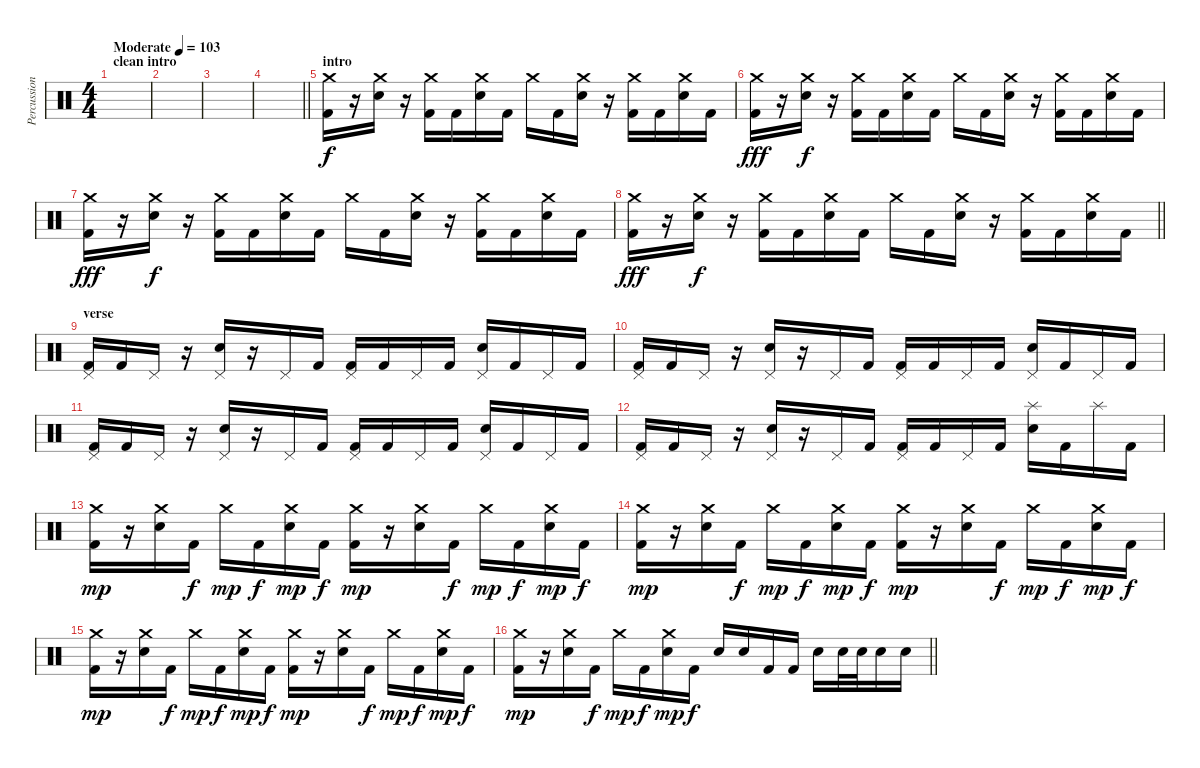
\track ("Percussion" "Percussion") {instrument percussion}
\staff {score}
\articulation defaults
\ts (4 4)
\section ("" "clean intro")
\tempo (103 "Moderate")
\clef neutral
\ks c
|
|
|
\barLineRight lightlight
|
\section ("" "intro")
("Crash medium (hit)" "Kick (hit) 2").16 r.16 ("Crash medium (hit)" "Electric Snare (hit)").16{dy f} r.16 ("Crash medium (hit)" "Kick (hit) 2").16 "Kick (hit) 2".16 ("Crash medium (hit)" "Electric Snare (hit)").16 "Kick (hit) 2".16 "Crash medium (hit)".16 "Kick (hit) 2".16 ("Crash medium (hit)" "Electric Snare (hit)").16 r.16 ("Crash medium (hit)" "Kick (hit) 2").16 "Kick (hit) 2".16 ("Crash medium (hit)" "Electric Snare (hit)").16 "Kick (hit) 2".16 |
("Crash medium (hit)" "Kick (hit) 2").16{dy fff} r.16 ("Crash medium (hit)" "Electric Snare (hit)").16{dy f} r.16 ("Crash medium (hit)" "Kick (hit) 2").16 "Kick (hit) 2".16 ("Crash medium (hit)" "Electric Snare (hit)").16 "Kick (hit) 2".16 "Crash medium (hit)".16 "Kick (hit) 2".16 ("Crash medium (hit)" "Electric Snare (hit)").16 r.16 ("Crash medium (hit)" "Kick (hit) 2").16 "Kick (hit) 2".16 ("Crash medium (hit)" "Electric Snare (hit)").16 "Kick (hit) 2".16 |
("Crash medium (hit)" "Kick (hit) 2").16{dy fff} r.16 ("Crash medium (hit)" "Electric Snare (hit)").16{dy f} r.16 ("Crash medium (hit)" "Kick (hit) 2").16 "Kick (hit) 2".16 ("Crash medium (hit)" "Electric Snare (hit)").16 "Kick (hit) 2".16 "Crash medium (hit)".16 "Kick (hit) 2".16 ("Crash medium (hit)" "Electric Snare (hit)").16 r.16 ("Crash medium (hit)" "Kick (hit) 2").16 "Kick (hit) 2".16 ("Crash medium (hit)" "Electric Snare (hit)").16 "Kick (hit) 2".16 |
\barLineRight lightlight
("Crash medium (hit)" "Kick (hit) 2").16{dy fff} r.16 ("Crash medium (hit)" "Electric Snare (hit)").16{dy f} r.16 ("Crash medium (hit)" "Kick (hit) 2").16 "Kick (hit) 2".16 ("Crash medium (hit)" "Electric Snare (hit)").16 "Kick (hit) 2".16 "Crash medium (hit)".16 "Kick (hit) 2".16 ("Crash medium (hit)" "Electric Snare (hit)").16 r.16 ("Crash medium (hit)" "Kick (hit) 2").16 "Kick (hit) 2".16 ("Crash medium (hit)" "Electric Snare (hit)").16 "Kick (hit) 2".16 |
\section ("" "verse")
("Pedal Hi-Hat (hit)" "Kick (hit) 2").16 "Kick (hit) 2".16 "Pedal Hi-Hat (hit)".16 r.16 ("Pedal Hi-Hat (hit)" "Electric Snare (hit)").16 r.16 "Pedal Hi-Hat (hit)".16 "Kick (hit) 2".16 ("Pedal Hi-Hat (hit)" "Kick (hit) 2").16 "Kick (hit) 2".16 "Pedal Hi-Hat (hit)".16 "Kick (hit) 2".16 ("Pedal Hi-Hat (hit)" "Electric Snare (hit)").16 "Kick (hit) 2".16 "Pedal Hi-Hat (hit)".16 "Kick (hit) 2".16 |
("Pedal Hi-Hat (hit)" "Kick (hit) 2").16 "Kick (hit) 2".16 "Pedal Hi-Hat (hit)".16 r.16 ("Pedal Hi-Hat (hit)" "Electric Snare (hit)").16 r.16 "Pedal Hi-Hat (hit)".16 "Kick (hit) 2".16 ("Pedal Hi-Hat (hit)" "Kick (hit) 2").16 "Kick (hit) 2".16 "Pedal Hi-Hat (hit)".16 "Kick (hit) 2".16 ("Pedal Hi-Hat (hit)" "Electric Snare (hit)").16 "Kick (hit) 2".16 "Pedal Hi-Hat (hit)".16 "Kick (hit) 2".16 |
("Pedal Hi-Hat (hit)" "Kick (hit) 2").16 "Kick (hit) 2".16 "Pedal Hi-Hat (hit)".16 r.16 ("Pedal Hi-Hat (hit)" "Electric Snare (hit)").16 r.16 "Pedal Hi-Hat (hit)".16 "Kick (hit) 2".16 ("Pedal Hi-Hat (hit)" "Kick (hit) 2").16 "Kick (hit) 2".16 "Pedal Hi-Hat (hit)".16 "Kick (hit) 2".16 ("Pedal Hi-Hat (hit)" "Electric Snare (hit)").16 "Kick (hit) 2".16 "Pedal Hi-Hat (hit)".16 "Kick (hit) 2".16 |
("Pedal Hi-Hat (hit)" "Kick (hit) 2").16 "Kick (hit) 2".16 "Pedal Hi-Hat (hit)".16 r.16 ("Pedal Hi-Hat (hit)" "Electric Snare (hit)").16 r.16 "Pedal Hi-Hat (hit)".16 "Kick (hit) 2".16 ("Pedal Hi-Hat (hit)" "Kick (hit) 2").16 "Kick (hit) 2".16 "Pedal Hi-Hat (hit)".16 "Kick (hit) 2".16 ("Splash (hit)" "Electric Snare (hit)").16 "Kick (hit) 2".16 "Splash (hit)".16 "Kick (hit) 2".16 |
("Crash medium (hit)" "Kick (hit) 2").16{dy mp} r.16 ("Crash medium (hit)" "Electric Snare (hit)").16 "Kick (hit) 2".16{dy f} "Crash medium (hit)".16{dy mp} "Kick (hit) 2".16{dy f} ("Crash medium (hit)" "Electric Snare (hit)").16{dy mp} "Kick (hit) 2".16{dy f} ("Crash medium (hit)" "Kick (hit) 2").16{dy mp} r.16 ("Crash medium (hit)" "Electric Snare (hit)").16 "Kick (hit) 2".16{dy f} "Crash medium (hit)".16{dy mp} "Kick (hit) 2".16{dy f} ("Crash medium (hit)" "Electric Snare (hit)").16{dy mp} "Kick (hit) 2".16{dy f} |
("Crash medium (hit)" "Kick (hit) 2").16{dy mp} r.16 ("Crash medium (hit)" "Electric Snare (hit)").16 "Kick (hit) 2".16{dy f} "Crash medium (hit)".16{dy mp} "Kick (hit) 2".16{dy f} ("Crash medium (hit)" "Electric Snare (hit)").16{dy mp} "Kick (hit) 2".16{dy f} ("Crash medium (hit)" "Kick (hit) 2").16{dy mp} r.16 ("Crash medium (hit)" "Electric Snare (hit)").16 "Kick (hit) 2".16{dy f} "Crash medium (hit)".16{dy mp} "Kick (hit) 2".16{dy f} ("Crash medium (hit)" "Electric Snare (hit)").16{dy mp} "Kick (hit) 2".16{dy f} |
("Crash medium (hit)" "Kick (hit) 2").16{dy mp} r.16 ("Crash medium (hit)" "Electric Snare (hit)").16 "Kick (hit) 2".16{dy f} "Crash medium (hit)".16{dy mp} "Kick (hit) 2".16{dy f} ("Crash medium (hit)" "Electric Snare (hit)").16{dy mp} "Kick (hit) 2".16{dy f} ("Crash medium (hit)" "Kick (hit) 2").16{dy mp} r.16 ("Crash medium (hit)" "Electric Snare (hit)").16 "Kick (hit) 2".16{dy f} "Crash medium (hit)".16{dy mp} "Kick (hit) 2".16{dy f} ("Crash medium (hit)" "Electric Snare (hit)").16{dy mp} "Kick (hit) 2".16{dy f} |
\barLineRight lightlight
("Crash medium (hit)" "Kick (hit) 2").16{dy mp} r.16 ("Crash medium (hit)" "Electric Snare (hit)").16 "Kick (hit) 2".16{dy f} "Crash medium (hit)".16{dy mp} "Kick (hit) 2".16{dy f} ("Crash medium (hit)" "Electric Snare (hit)").16{dy mp} "Kick (hit) 2".16{dy f} "Electric Snare (hit)".16 "Electric Snare (hit)".16 "Kick (hit) 2".16 "Kick (hit) 2".16 "Electric Snare (hit)".16 "Electric Snare (hit)".32 "Electric Snare (hit)".32 "Electric Snare (hit)".16 "Electric Snare (hit)".16
